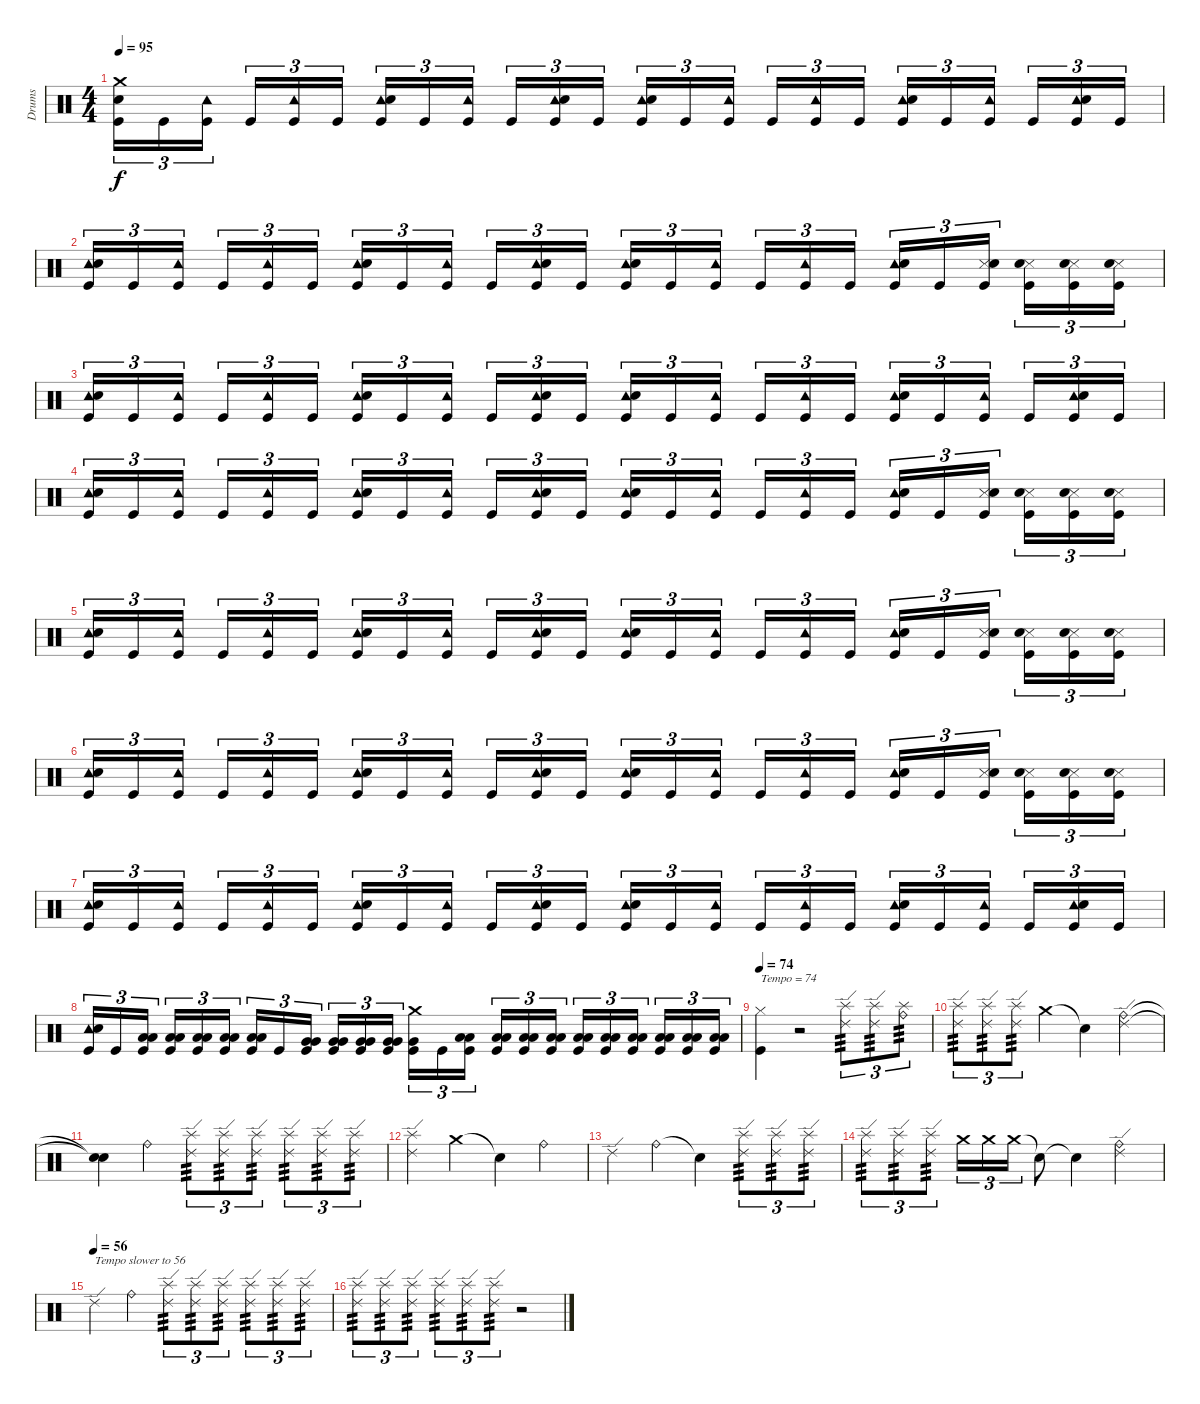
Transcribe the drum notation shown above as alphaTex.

\track ("Drums" "Drums") {instrument percussion}
\staff {score}
\articulation defaults
\ts (4 4)
\tempo 95
\clef neutral
\ks c
("Crash medium (hit)" "Snare (hit) 2" "Kick (hit)").16{tu (3 2) dy f} "Kick (hit)".16{tu (3 2)} ("Tambourine (hit)" "Kick (hit)").16{tu (3 2)} "Kick (hit)".16{tu (3 2)} ("Tambourine (hit)" "Kick (hit)").16{tu (3 2)} "Kick (hit)".16{tu (3 2)} ("Tambourine (hit)" "Snare (hit) 2" "Kick (hit)").16{tu (3 2)} "Kick (hit)".16{tu (3 2)} ("Tambourine (hit)" "Kick (hit)").16{tu (3 2)} "Kick (hit)".16{tu (3 2)} ("Tambourine (hit)" "Snare (hit) 2" "Kick (hit)").16{tu (3 2)} "Kick (hit)".16{tu (3 2)} ("Tambourine (hit)" "Snare (hit) 2" "Kick (hit)").16{tu (3 2)} "Kick (hit)".16{tu (3 2)} ("Tambourine (hit)" "Kick (hit)").16{tu (3 2)} "Kick (hit)".16{tu (3 2)} ("Tambourine (hit)" "Kick (hit)").16{tu (3 2)} "Kick (hit)".16{tu (3 2)} ("Tambourine (hit)" "Snare (hit) 2" "Kick (hit)").16{tu (3 2)} "Kick (hit)".16{tu (3 2)} ("Tambourine (hit)" "Kick (hit)").16{tu (3 2)} "Kick (hit)".16{tu (3 2)} ("Tambourine (hit)" "Snare (hit) 2" "Kick (hit)").16{tu (3 2)} "Kick (hit)".16{tu (3 2)} |
("Tambourine (hit)" "Snare (hit) 2" "Kick (hit)").16{tu (3 2)} "Kick (hit)".16{tu (3 2)} ("Tambourine (hit)" "Kick (hit)").16{tu (3 2)} "Kick (hit)".16{tu (3 2)} ("Tambourine (hit)" "Kick (hit)").16{tu (3 2)} "Kick (hit)".16{tu (3 2)} ("Tambourine (hit)" "Snare (hit) 2" "Kick (hit)").16{tu (3 2)} "Kick (hit)".16{tu (3 2)} ("Tambourine (hit)" "Kick (hit)").16{tu (3 2)} "Kick (hit)".16{tu (3 2)} ("Tambourine (hit)" "Snare (hit) 2" "Kick (hit)").16{tu (3 2)} "Kick (hit)".16{tu (3 2)} ("Tambourine (hit)" "Snare (hit) 2" "Kick (hit)").16{tu (3 2)} "Kick (hit)".16{tu (3 2)} ("Tambourine (hit)" "Kick (hit)").16{tu (3 2)} "Kick (hit)".16{tu (3 2)} ("Tambourine (hit)" "Kick (hit)").16{tu (3 2)} "Kick (hit)".16{tu (3 2)} ("Tambourine (hit)" "Snare (hit) 2" "Kick (hit)").16{tu (3 2)} "Kick (hit)".16{tu (3 2)} ("Snare (side stick) 3" "Snare (hit) 2" "Kick (hit)").16{tu (3 2)} ("Snare (side stick) 3" "Snare (hit) 2" "Kick (hit)").16{tu (3 2)} ("Snare (side stick) 3" "Snare (hit) 2" "Kick (hit)").16{tu (3 2)} ("Snare (side stick) 3" "Snare (hit) 2" "Kick (hit)").16{tu (3 2)} |
("Tambourine (hit)" "Snare (hit) 2" "Kick (hit)").16{tu (3 2)} "Kick (hit)".16{tu (3 2)} ("Tambourine (hit)" "Kick (hit)").16{tu (3 2)} "Kick (hit)".16{tu (3 2)} ("Tambourine (hit)" "Kick (hit)").16{tu (3 2)} "Kick (hit)".16{tu (3 2)} ("Tambourine (hit)" "Snare (hit) 2" "Kick (hit)").16{tu (3 2)} "Kick (hit)".16{tu (3 2)} ("Tambourine (hit)" "Kick (hit)").16{tu (3 2)} "Kick (hit)".16{tu (3 2)} ("Tambourine (hit)" "Snare (hit) 2" "Kick (hit)").16{tu (3 2)} "Kick (hit)".16{tu (3 2)} ("Tambourine (hit)" "Snare (hit) 2" "Kick (hit)").16{tu (3 2)} "Kick (hit)".16{tu (3 2)} ("Tambourine (hit)" "Kick (hit)").16{tu (3 2)} "Kick (hit)".16{tu (3 2)} ("Tambourine (hit)" "Kick (hit)").16{tu (3 2)} "Kick (hit)".16{tu (3 2)} ("Tambourine (hit)" "Snare (hit) 2" "Kick (hit)").16{tu (3 2)} "Kick (hit)".16{tu (3 2)} ("Tambourine (hit)" "Kick (hit)").16{tu (3 2)} "Kick (hit)".16{tu (3 2)} ("Tambourine (hit)" "Snare (hit) 2" "Kick (hit)").16{tu (3 2)} "Kick (hit)".16{tu (3 2)} |
("Tambourine (hit)" "Snare (hit) 2" "Kick (hit)").16{tu (3 2)} "Kick (hit)".16{tu (3 2)} ("Tambourine (hit)" "Kick (hit)").16{tu (3 2)} "Kick (hit)".16{tu (3 2)} ("Tambourine (hit)" "Kick (hit)").16{tu (3 2)} "Kick (hit)".16{tu (3 2)} ("Tambourine (hit)" "Snare (hit) 2" "Kick (hit)").16{tu (3 2)} "Kick (hit)".16{tu (3 2)} ("Tambourine (hit)" "Kick (hit)").16{tu (3 2)} "Kick (hit)".16{tu (3 2)} ("Tambourine (hit)" "Snare (hit) 2" "Kick (hit)").16{tu (3 2)} "Kick (hit)".16{tu (3 2)} ("Tambourine (hit)" "Snare (hit) 2" "Kick (hit)").16{tu (3 2)} "Kick (hit)".16{tu (3 2)} ("Tambourine (hit)" "Kick (hit)").16{tu (3 2)} "Kick (hit)".16{tu (3 2)} ("Tambourine (hit)" "Kick (hit)").16{tu (3 2)} "Kick (hit)".16{tu (3 2)} ("Tambourine (hit)" "Snare (hit) 2" "Kick (hit)").16{tu (3 2)} "Kick (hit)".16{tu (3 2)} ("Snare (side stick) 3" "Snare (hit) 2" "Kick (hit)").16{tu (3 2)} ("Snare (side stick) 3" "Snare (hit) 2" "Kick (hit)").16{tu (3 2)} ("Snare (side stick) 3" "Snare (hit) 2" "Kick (hit)").16{tu (3 2)} ("Snare (side stick) 3" "Snare (hit) 2" "Kick (hit)").16{tu (3 2)} |
("Tambourine (hit)" "Snare (hit) 2" "Kick (hit)").16{tu (3 2)} "Kick (hit)".16{tu (3 2)} ("Tambourine (hit)" "Kick (hit)").16{tu (3 2)} "Kick (hit)".16{tu (3 2)} ("Tambourine (hit)" "Kick (hit)").16{tu (3 2)} "Kick (hit)".16{tu (3 2)} ("Tambourine (hit)" "Snare (hit) 2" "Kick (hit)").16{tu (3 2)} "Kick (hit)".16{tu (3 2)} ("Tambourine (hit)" "Kick (hit)").16{tu (3 2)} "Kick (hit)".16{tu (3 2)} ("Tambourine (hit)" "Snare (hit) 2" "Kick (hit)").16{tu (3 2)} "Kick (hit)".16{tu (3 2)} ("Tambourine (hit)" "Snare (hit) 2" "Kick (hit)").16{tu (3 2)} "Kick (hit)".16{tu (3 2)} ("Tambourine (hit)" "Kick (hit)").16{tu (3 2)} "Kick (hit)".16{tu (3 2)} ("Tambourine (hit)" "Kick (hit)").16{tu (3 2)} "Kick (hit)".16{tu (3 2)} ("Tambourine (hit)" "Snare (hit) 2" "Kick (hit)").16{tu (3 2)} "Kick (hit)".16{tu (3 2)} ("Snare (side stick) 3" "Snare (hit) 2" "Kick (hit)").16{tu (3 2)} ("Snare (side stick) 3" "Snare (hit) 2" "Kick (hit)").16{tu (3 2)} ("Snare (side stick) 3" "Snare (hit) 2" "Kick (hit)").16{tu (3 2)} ("Snare (side stick) 3" "Snare (hit) 2" "Kick (hit)").16{tu (3 2)} |
("Tambourine (hit)" "Snare (hit) 2" "Kick (hit)").16{tu (3 2)} "Kick (hit)".16{tu (3 2)} ("Tambourine (hit)" "Kick (hit)").16{tu (3 2)} "Kick (hit)".16{tu (3 2)} ("Tambourine (hit)" "Kick (hit)").16{tu (3 2)} "Kick (hit)".16{tu (3 2)} ("Tambourine (hit)" "Snare (hit) 2" "Kick (hit)").16{tu (3 2)} "Kick (hit)".16{tu (3 2)} ("Tambourine (hit)" "Kick (hit)").16{tu (3 2)} "Kick (hit)".16{tu (3 2)} ("Tambourine (hit)" "Snare (hit) 2" "Kick (hit)").16{tu (3 2)} "Kick (hit)".16{tu (3 2)} ("Tambourine (hit)" "Snare (hit) 2" "Kick (hit)").16{tu (3 2)} "Kick (hit)".16{tu (3 2)} ("Tambourine (hit)" "Kick (hit)").16{tu (3 2)} "Kick (hit)".16{tu (3 2)} ("Tambourine (hit)" "Kick (hit)").16{tu (3 2)} "Kick (hit)".16{tu (3 2)} ("Tambourine (hit)" "Snare (hit) 2" "Kick (hit)").16{tu (3 2)} "Kick (hit)".16{tu (3 2)} ("Snare (side stick) 3" "Snare (hit) 2" "Kick (hit)").16{tu (3 2)} ("Snare (side stick) 3" "Snare (hit) 2" "Kick (hit)").16{tu (3 2)} ("Snare (side stick) 3" "Snare (hit) 2" "Kick (hit)").16{tu (3 2)} ("Snare (side stick) 3" "Snare (hit) 2" "Kick (hit)").16{tu (3 2)} |
("Tambourine (hit)" "Snare (hit) 2" "Kick (hit)").16{tu (3 2)} "Kick (hit)".16{tu (3 2)} ("Tambourine (hit)" "Kick (hit)").16{tu (3 2)} "Kick (hit)".16{tu (3 2)} ("Tambourine (hit)" "Kick (hit)").16{tu (3 2)} "Kick (hit)".16{tu (3 2)} ("Tambourine (hit)" "Snare (hit) 2" "Kick (hit)").16{tu (3 2)} "Kick (hit)".16{tu (3 2)} ("Tambourine (hit)" "Kick (hit)").16{tu (3 2)} "Kick (hit)".16{tu (3 2)} ("Tambourine (hit)" "Snare (hit) 2" "Kick (hit)").16{tu (3 2)} "Kick (hit)".16{tu (3 2)} ("Tambourine (hit)" "Snare (hit) 2" "Kick (hit)").16{tu (3 2)} "Kick (hit)".16{tu (3 2)} ("Tambourine (hit)" "Kick (hit)").16{tu (3 2)} "Kick (hit)".16{tu (3 2)} ("Tambourine (hit)" "Kick (hit)").16{tu (3 2)} "Kick (hit)".16{tu (3 2)} ("Tambourine (hit)" "Snare (hit) 2" "Kick (hit)").16{tu (3 2)} "Kick (hit)".16{tu (3 2)} ("Tambourine (hit)" "Kick (hit)").16{tu (3 2)} "Kick (hit)".16{tu (3 2)} ("Tambourine (hit)" "Snare (hit) 2" "Kick (hit)").16{tu (3 2)} "Kick (hit)".16{tu (3 2)} |
("Tambourine (hit)" "Snare (hit) 2" "Kick (hit)").16{tu (3 2)} "Kick (hit)".16{tu (3 2)} ("Low Floor Tom (hit)" "Low Floor Tom (hit)" "Kick (hit)").16{tu (3 2)} ("Low Floor Tom (hit)" "Low Floor Tom (hit)" "Kick (hit)").16{tu (3 2)} ("Low Floor Tom (hit)" "Low Floor Tom (hit)" "Kick (hit)").16{tu (3 2)} ("Low Floor Tom (hit)" "Low Floor Tom (hit)" "Kick (hit)").16{tu (3 2)} ("Low Floor Tom (hit)" "Low Floor Tom (hit)" "Kick (hit)").16{tu (3 2)} "Kick (hit)".16{tu (3 2)} ("Very Low Tom (hit)" "Very Low Tom (hit)" "Kick (hit)").16{tu (3 2)} ("Very Low Tom (hit)" "Very Low Tom (hit)" "Kick (hit)").16{tu (3 2)} ("Very Low Tom (hit)" "Very Low Tom (hit)" "Kick (hit)").16{tu (3 2)} ("Very Low Tom (hit)" "Very Low Tom (hit)" "Kick (hit)").16{tu (3 2)} ("Crash medium (hit)" "Very Low Tom (hit)" "Kick (hit)").16{tu (3 2)} "Kick (hit)".16{tu (3 2)} ("Low Tom (hit)" "Low Tom (hit)" "Kick (hit)").16{tu (3 2)} ("Low Tom (hit)" "Low Tom (hit)" "Kick (hit)").16{tu (3 2)} ("Low Tom (hit)" "Low Tom (hit)" "Kick (hit)").16{tu (3 2)} ("Low Tom (hit)" "Low Tom (hit)" "Kick (hit)").16{tu (3 2)} ("Low Tom (hit)" "Low Tom (hit)" "Kick (hit)").16{tu (3 2)} ("Low Tom (hit)" "Low Tom (hit)" "Kick (hit)").16{tu (3 2)} ("Low Tom (hit)" "Low Tom (hit)" "Kick (hit)").16{tu (3 2)} ("Low Tom (hit)" "Low Tom (hit)" "Kick (hit)").16{tu (3 2)} ("Low Tom (hit)" "Low Tom (hit)" "Kick (hit)").16{tu (3 2)} ("Low Tom (hit)" "Low Tom (hit)" "Kick (hit)").16{tu (3 2)} |
\tempo 74
("Hi-Hat (closed)" "Kick (hit)").4{txt "Tempo = 74"} r.2{volume 1} ("Ride (edge) 2" "Splash (hit)").8{tu (3 2) tp 3 volume 6} ("Ride (edge) 2" "Splash (hit)").8{tu (3 2) tp 3} ("Ride (bell)" "Splash (hit)").8{tu (3 2) tp 3} |
("Ride (edge) 2" "Splash (hit)").8{tu (3 2) tp 3 volume 12} ("Ride (edge) 2" "Splash (hit)").8{tu (3 2) tp 3} ("Ride (edge) 2" "Splash (hit)").8{tu (3 2) tp 3 volume 3} "Crash medium (hit)".4{volume 16} "Snare (hit)"{t}.4 ("Ride (bell)" "Ride (edge) 2").4{volume 16} |
("Snare (hit)"{t} "Snare (hit)"{t}).4 "Ride (bell)".4 ("Ride (edge) 2" "Splash (hit)").8{tu (3 2) tp 3 volume 1} ("Ride (edge) 2" "Splash (hit)").8{tu (3 2) tp 3 volume 13} ("Ride (edge) 2" "Splash (hit)").8{tu (3 2) tp 3} ("Ride (edge) 2" "Splash (hit)").8{tu (3 2) tp 3} ("Ride (edge) 2" "Splash (hit)").8{tu (3 2) tp 3} ("Ride (edge) 2" "Splash (hit)").8{tu (3 2) tp 3} |
("Ride (edge) 2" "Splash (hit)").4{volume 12} "Crash medium (hit)".4{volume 16} "Snare (hit)"{t}.4 "Ride (bell)".4{volume 16} |
"Ride (edge) 2".4{volume 11} "Ride (bell)".4{volume 16} "Snare (hit)"{t}.4 ("Ride (edge) 2" "Splash (hit)").8{tu (3 2) tp 3 volume 6} ("Ride (edge) 2" "Splash (hit)").8{tu (3 2) tp 3} ("Ride (edge) 2" "Splash (hit)").8{tu (3 2) tp 3} |
("Ride (edge) 2" "Splash (hit)").8{tu (3 2) tp 3 volume 12} ("Ride (edge) 2" "Splash (hit)").8{tu (3 2) tp 3} ("Ride (edge) 2" "Splash (hit)").8{tu (3 2) tp 3 volume 3} "Crash medium (hit)".16{tu (3 2) volume 16} "Crash medium (hit)".16{tu (3 2)} "Crash medium (hit)".16{tu (3 2)} "Snare (hit)"{t}.8 "Snare (hit)"{t}.4 ("Ride (bell)" "Ride (edge) 2").4{volume 16} |
\tempo (56)
"Ride (edge) 2".4{txt "Tempo slower to 56" volume 11} "Ride (bell)".4{volume 16} ("Ride (edge) 2" "Splash (hit)").8{tu (3 2) tp 3 volume 4} ("Ride (edge) 2" "Splash (hit)").8{tu (3 2) tp 3 volume 6} ("Ride (edge) 2" "Splash (hit)").8{tu (3 2) tp 3 volume 8} ("Ride (edge) 2" "Splash (hit)").8{tu (3 2) tp 3 volume 10} ("Ride (edge) 2" "Splash (hit)").8{tu (3 2) tp 3 volume 12} ("Ride (edge) 2" "Splash (hit)").8{tu (3 2) tp 3 volume 14} |
("Ride (edge) 2" "Splash (hit)").8{tu (3 2) tp 3 volume 16} ("Ride (edge) 2" "Splash (hit)").8{tu (3 2) tp 3 volume 1} ("Ride (edge) 2" "Splash (hit)").8{tu (3 2) tp 3} ("Ride (edge) 2" "Splash (hit)").8{tu (3 2) tp 3} ("Ride (edge) 2" "Splash (hit)").8{tu (3 2) tp 3} ("Ride (edge) 2" "Splash (hit)").8{tu (3 2) tp 3} r.2
